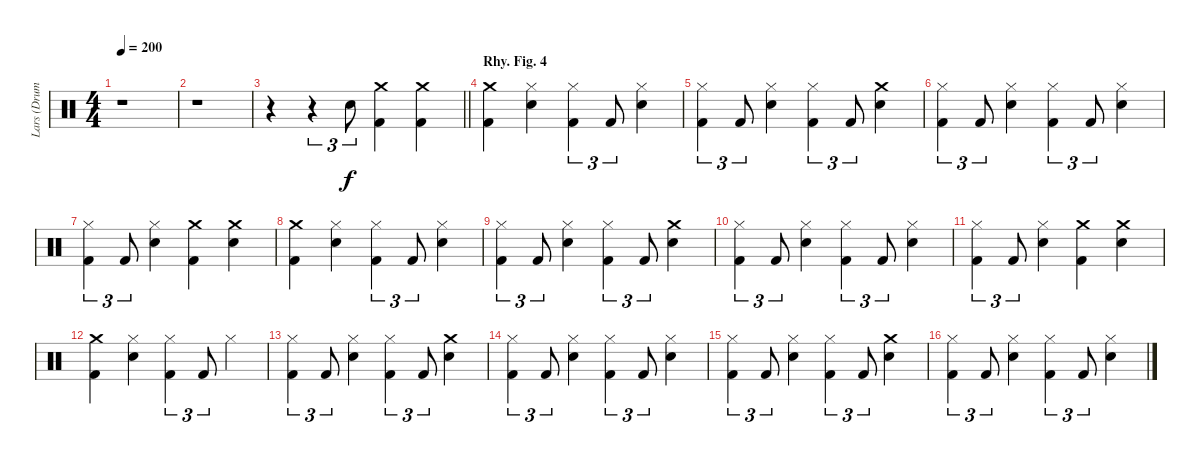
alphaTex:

\track ("Lars (Drums)" "Lars (Drum") {instrument percussion}
\staff {score}
\articulation defaults
\ts (4 4)
\tempo 200
\clef neutral
\ks c
r.1{dy f} |
r.1 |
\barLineRight lightlight
r.4 r.4{tu (3 2)} "Snare (hit) 2".8{tu (3 2)} ("Kick (hit) 2" "Crash medium (hit)").4 ("Kick (hit) 2" "Crash medium (hit)").4 |
\section ("" "Rhy. Fig. 4")
("Kick (hit) 2" "Crash medium (hit)").4 ("Hi-Hat (closed)" "Snare (hit) 2").4 ("Kick (hit) 2" "Hi-Hat (closed)").4{tu (3 2)} "Kick (hit) 2".8{tu (3 2)} ("Snare (hit) 2" "Hi-Hat (closed)").4 |
("Hi-Hat (closed)" "Kick (hit) 2").4{tu (3 2)} "Kick (hit) 2".8{tu (3 2)} ("Snare (hit) 2" "Hi-Hat (closed)").4 ("Hi-Hat (closed)" "Kick (hit) 2").4{tu (3 2)} "Kick (hit) 2".8{tu (3 2)} ("Crash medium (hit)" "Snare (hit) 2").4 |
("Hi-Hat (closed)" "Kick (hit) 2").4{tu (3 2)} "Kick (hit) 2".8{tu (3 2)} ("Snare (hit) 2" "Hi-Hat (closed)").4 ("Hi-Hat (closed)" "Kick (hit) 2").4{tu (3 2)} "Kick (hit) 2".8{tu (3 2)} ("Snare (hit) 2" "Hi-Hat (closed)").4 |
("Hi-Hat (closed)" "Kick (hit) 2").4{tu (3 2)} "Kick (hit) 2".8{tu (3 2)} ("Snare (hit) 2" "Hi-Hat (closed)").4 ("Crash medium (hit)" "Kick (hit) 2").4 ("Crash medium (hit)" "Snare (hit) 2").4 |
("Kick (hit) 2" "Crash medium (hit)").4 ("Hi-Hat (closed)" "Snare (hit) 2").4 ("Kick (hit) 2" "Hi-Hat (closed)").4{tu (3 2)} "Kick (hit) 2".8{tu (3 2)} ("Snare (hit) 2" "Hi-Hat (closed)").4 |
("Hi-Hat (closed)" "Kick (hit) 2").4{tu (3 2)} "Kick (hit) 2".8{tu (3 2)} ("Snare (hit) 2" "Hi-Hat (closed)").4 ("Hi-Hat (closed)" "Kick (hit) 2").4{tu (3 2)} "Kick (hit) 2".8{tu (3 2)} ("Crash medium (hit)" "Snare (hit) 2").4 |
("Hi-Hat (closed)" "Kick (hit) 2").4{tu (3 2)} "Kick (hit) 2".8{tu (3 2)} ("Snare (hit) 2" "Hi-Hat (closed)").4 ("Hi-Hat (closed)" "Kick (hit) 2").4{tu (3 2)} "Kick (hit) 2".8{tu (3 2)} ("Snare (hit) 2" "Hi-Hat (closed)").4 |
("Hi-Hat (closed)" "Kick (hit) 2").4{tu (3 2)} "Kick (hit) 2".8{tu (3 2)} ("Snare (hit) 2" "Hi-Hat (closed)").4 ("Crash medium (hit)" "Kick (hit) 2").4 ("Crash medium (hit)" "Snare (hit) 2").4 |
("Kick (hit) 2" "Crash medium (hit)").4 ("Hi-Hat (closed)" "Snare (hit) 2").4 ("Kick (hit) 2" "Hi-Hat (closed)").4{tu (3 2)} "Kick (hit) 2".8{tu (3 2)} "Hi-Hat (closed)".4 |
("Hi-Hat (closed)" "Kick (hit) 2").4{tu (3 2)} "Kick (hit) 2".8{tu (3 2)} ("Snare (hit) 2" "Hi-Hat (closed)").4 ("Hi-Hat (closed)" "Kick (hit) 2").4{tu (3 2)} "Kick (hit) 2".8{tu (3 2)} ("Crash medium (hit)" "Snare (hit) 2").4 |
("Hi-Hat (closed)" "Kick (hit) 2").4{tu (3 2)} "Kick (hit) 2".8{tu (3 2)} ("Snare (hit) 2" "Hi-Hat (closed)").4 ("Hi-Hat (closed)" "Kick (hit) 2").4{tu (3 2)} "Kick (hit) 2".8{tu (3 2)} ("Snare (hit) 2" "Hi-Hat (closed)").4 |
("Hi-Hat (closed)" "Kick (hit) 2").4{tu (3 2)} "Kick (hit) 2".8{tu (3 2)} ("Snare (hit) 2" "Hi-Hat (closed)").4 ("Hi-Hat (closed)" "Kick (hit) 2").4{tu (3 2)} "Kick (hit) 2".8{tu (3 2)} ("Crash medium (hit)" "Snare (hit) 2").4 |
("Hi-Hat (closed)" "Kick (hit) 2").4{tu (3 2)} "Kick (hit) 2".8{tu (3 2)} ("Snare (hit) 2" "Hi-Hat (closed)").4 ("Hi-Hat (closed)" "Kick (hit) 2").4{tu (3 2)} "Kick (hit) 2".8{tu (3 2)} ("Snare (hit) 2" "Hi-Hat (closed)").4
